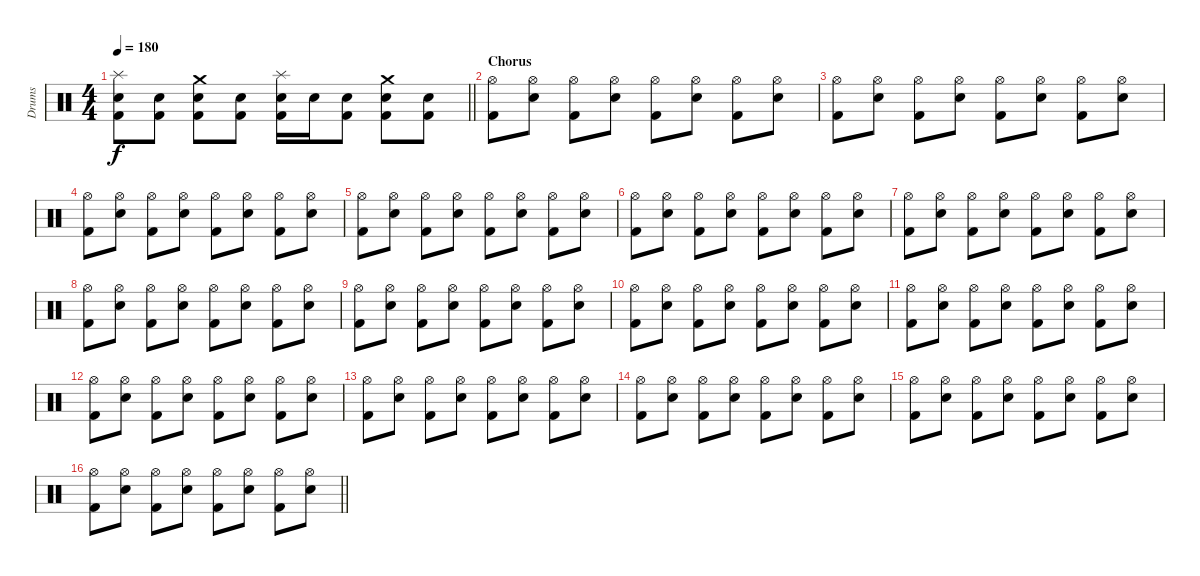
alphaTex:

\track ("Drums" "Drums") {instrument percussion}
\staff {score}
\articulation defaults
\ts (4 4)
\tempo 180
\clef neutral
\barLineRight lightlight
\ks c
("Splash (hit)" "Snare (hit) 2" "Kick (hit) 2").8{dy f} ("Snare (hit) 2" "Kick (hit) 2").8 ("Crash medium (hit)" "Snare (hit) 2" "Kick (hit) 2").8 ("Snare (hit) 2" "Kick (hit) 2").8 ("Splash (hit)" "Snare (hit) 2" "Kick (hit) 2").16 "Snare (hit) 2".16 ("Snare (hit) 2" "Kick (hit) 2").8 ("Crash medium (hit)" "Snare (hit) 2" "Kick (hit) 2").8 ("Snare (hit) 2" "Kick (hit) 2").8 |
\section ("" "Chorus")
("Hi-Hat (open)" "Kick (hit) 2").8 ("Hi-Hat (open)" "Snare (hit) 2").8 ("Hi-Hat (open)" "Kick (hit) 2").8 ("Hi-Hat (open)" "Snare (hit) 2").8 ("Hi-Hat (open)" "Kick (hit) 2").8 ("Hi-Hat (open)" "Snare (hit) 2").8 ("Hi-Hat (open)" "Kick (hit) 2").8 ("Hi-Hat (open)" "Snare (hit) 2").8 |
("Hi-Hat (open)" "Kick (hit) 2").8 ("Hi-Hat (open)" "Snare (hit) 2").8 ("Hi-Hat (open)" "Kick (hit) 2").8 ("Hi-Hat (open)" "Snare (hit) 2").8 ("Hi-Hat (open)" "Kick (hit) 2").8 ("Hi-Hat (open)" "Snare (hit) 2").8 ("Hi-Hat (open)" "Kick (hit) 2").8 ("Hi-Hat (open)" "Snare (hit) 2").8 |
("Hi-Hat (open)" "Kick (hit) 2").8 ("Hi-Hat (open)" "Snare (hit) 2").8 ("Hi-Hat (open)" "Kick (hit) 2").8 ("Hi-Hat (open)" "Snare (hit) 2").8 ("Hi-Hat (open)" "Kick (hit) 2").8 ("Hi-Hat (open)" "Snare (hit) 2").8 ("Hi-Hat (open)" "Kick (hit) 2").8 ("Hi-Hat (open)" "Snare (hit) 2").8 |
("Hi-Hat (open)" "Kick (hit) 2").8 ("Hi-Hat (open)" "Snare (hit) 2").8 ("Hi-Hat (open)" "Kick (hit) 2").8 ("Hi-Hat (open)" "Snare (hit) 2").8 ("Hi-Hat (open)" "Kick (hit) 2").8 ("Hi-Hat (open)" "Snare (hit) 2").8 ("Hi-Hat (open)" "Kick (hit) 2").8 ("Hi-Hat (open)" "Snare (hit) 2").8 |
("Hi-Hat (open)" "Kick (hit) 2").8 ("Hi-Hat (open)" "Snare (hit) 2").8 ("Hi-Hat (open)" "Kick (hit) 2").8 ("Hi-Hat (open)" "Snare (hit) 2").8 ("Hi-Hat (open)" "Kick (hit) 2").8 ("Hi-Hat (open)" "Snare (hit) 2").8 ("Hi-Hat (open)" "Kick (hit) 2").8 ("Hi-Hat (open)" "Snare (hit) 2").8 |
("Hi-Hat (open)" "Kick (hit) 2").8 ("Hi-Hat (open)" "Snare (hit) 2").8 ("Hi-Hat (open)" "Kick (hit) 2").8 ("Hi-Hat (open)" "Snare (hit) 2").8 ("Hi-Hat (open)" "Kick (hit) 2").8 ("Hi-Hat (open)" "Snare (hit) 2").8 ("Hi-Hat (open)" "Kick (hit) 2").8 ("Hi-Hat (open)" "Snare (hit) 2").8 |
("Hi-Hat (open)" "Kick (hit) 2").8 ("Hi-Hat (open)" "Snare (hit) 2").8 ("Hi-Hat (open)" "Kick (hit) 2").8 ("Hi-Hat (open)" "Snare (hit) 2").8 ("Hi-Hat (open)" "Kick (hit) 2").8 ("Hi-Hat (open)" "Snare (hit) 2").8 ("Hi-Hat (open)" "Kick (hit) 2").8 ("Hi-Hat (open)" "Snare (hit) 2").8 |
("Hi-Hat (open)" "Kick (hit) 2").8 ("Hi-Hat (open)" "Snare (hit) 2").8 ("Hi-Hat (open)" "Kick (hit) 2").8 ("Hi-Hat (open)" "Snare (hit) 2").8 ("Hi-Hat (open)" "Kick (hit) 2").8 ("Hi-Hat (open)" "Snare (hit) 2").8 ("Hi-Hat (open)" "Kick (hit) 2").8 ("Hi-Hat (open)" "Snare (hit) 2").8 |
("Hi-Hat (open)" "Kick (hit) 2").8 ("Hi-Hat (open)" "Snare (hit) 2").8 ("Hi-Hat (open)" "Kick (hit) 2").8 ("Hi-Hat (open)" "Snare (hit) 2").8 ("Hi-Hat (open)" "Kick (hit) 2").8 ("Hi-Hat (open)" "Snare (hit) 2").8 ("Hi-Hat (open)" "Kick (hit) 2").8 ("Hi-Hat (open)" "Snare (hit) 2").8 |
("Hi-Hat (open)" "Kick (hit) 2").8 ("Hi-Hat (open)" "Snare (hit) 2").8 ("Hi-Hat (open)" "Kick (hit) 2").8 ("Hi-Hat (open)" "Snare (hit) 2").8 ("Hi-Hat (open)" "Kick (hit) 2").8 ("Hi-Hat (open)" "Snare (hit) 2").8 ("Hi-Hat (open)" "Kick (hit) 2").8 ("Hi-Hat (open)" "Snare (hit) 2").8 |
("Hi-Hat (open)" "Kick (hit) 2").8 ("Hi-Hat (open)" "Snare (hit) 2").8 ("Hi-Hat (open)" "Kick (hit) 2").8 ("Hi-Hat (open)" "Snare (hit) 2").8 ("Hi-Hat (open)" "Kick (hit) 2").8 ("Hi-Hat (open)" "Snare (hit) 2").8 ("Hi-Hat (open)" "Kick (hit) 2").8 ("Hi-Hat (open)" "Snare (hit) 2").8 |
("Hi-Hat (open)" "Kick (hit) 2").8 ("Hi-Hat (open)" "Snare (hit) 2").8 ("Hi-Hat (open)" "Kick (hit) 2").8 ("Hi-Hat (open)" "Snare (hit) 2").8 ("Hi-Hat (open)" "Kick (hit) 2").8 ("Hi-Hat (open)" "Snare (hit) 2").8 ("Hi-Hat (open)" "Kick (hit) 2").8 ("Hi-Hat (open)" "Snare (hit) 2").8 |
("Hi-Hat (open)" "Kick (hit) 2").8 ("Hi-Hat (open)" "Snare (hit) 2").8 ("Hi-Hat (open)" "Kick (hit) 2").8 ("Hi-Hat (open)" "Snare (hit) 2").8 ("Hi-Hat (open)" "Kick (hit) 2").8 ("Hi-Hat (open)" "Snare (hit) 2").8 ("Hi-Hat (open)" "Kick (hit) 2").8 ("Hi-Hat (open)" "Snare (hit) 2").8 |
("Hi-Hat (open)" "Kick (hit) 2").8 ("Hi-Hat (open)" "Snare (hit) 2").8 ("Hi-Hat (open)" "Kick (hit) 2").8 ("Hi-Hat (open)" "Snare (hit) 2").8 ("Hi-Hat (open)" "Kick (hit) 2").8 ("Hi-Hat (open)" "Snare (hit) 2").8 ("Hi-Hat (open)" "Kick (hit) 2").8 ("Hi-Hat (open)" "Snare (hit) 2").8 |
\barLineRight lightlight
("Hi-Hat (open)" "Kick (hit) 2").8 ("Hi-Hat (open)" "Snare (hit) 2").8 ("Hi-Hat (open)" "Kick (hit) 2").8 ("Hi-Hat (open)" "Snare (hit) 2").8 ("Hi-Hat (open)" "Kick (hit) 2").8 ("Hi-Hat (open)" "Snare (hit) 2").8 ("Hi-Hat (open)" "Kick (hit) 2").8 ("Hi-Hat (open)" "Snare (hit) 2").8
